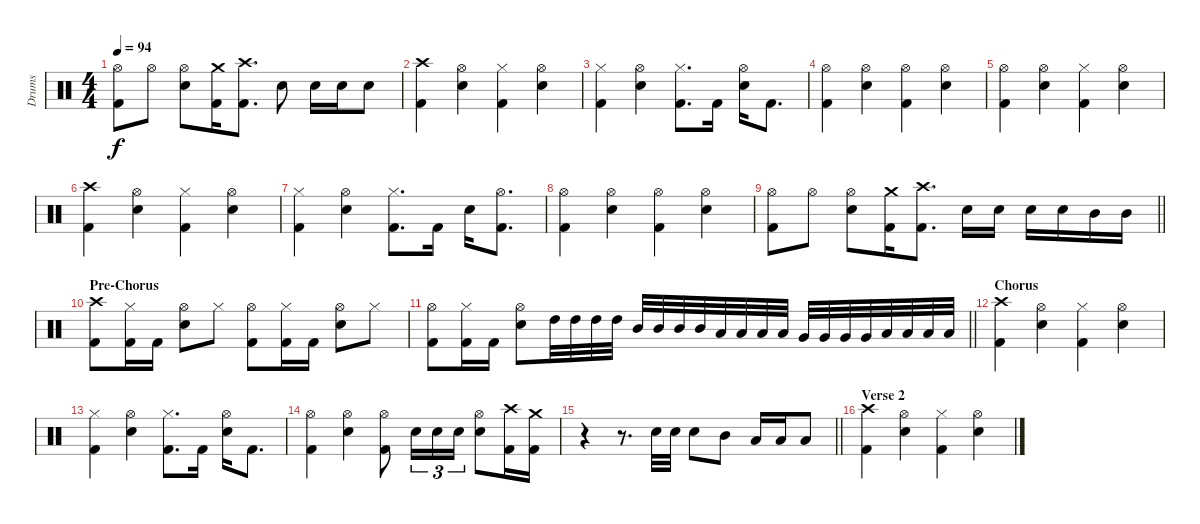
\track ("Drums" "Drums") {instrument percussion}
\staff {score}
\articulation defaults
\ts (4 4)
\tempo 94
\clef neutral
\ks c
("Hi-Hat (open)" "Kick (hit) 2").8{dy f} "Hi-Hat (open)".8 ("Hi-Hat (open)" "Snare (hit) 2").8 ("Crash medium (hit)" "Kick (hit) 2").16 ("Crash high (hit)" "Kick (hit) 2").8{d} "Snare (hit) 2".8 "Snare (hit) 2".16 "Snare (hit) 2".16 "Snare (hit) 2".8 |
("Crash high (hit)" "Kick (hit) 2").4 ("Hi-Hat (open)" "Snare (hit) 2").4 ("Hi-Hat (closed)" "Kick (hit) 2").4 ("Hi-Hat (open)" "Snare (hit) 2").4 |
("Hi-Hat (closed)" "Kick (hit) 2").4 ("Hi-Hat (open)" "Snare (hit) 2").4 ("Hi-Hat (closed)" "Kick (hit) 2").8{d} "Kick (hit) 2".16 ("Hi-Hat (open)" "Snare (hit) 2").16 "Kick (hit) 2".8{d} |
("Hi-Hat (open)" "Kick (hit) 2").4 ("Hi-Hat (open)" "Snare (hit) 2").4 ("Hi-Hat (open)" "Kick (hit) 2").4 ("Hi-Hat (open)" "Snare (hit) 2").4 |
("Hi-Hat (open)" "Kick (hit) 2").4 ("Hi-Hat (open)" "Snare (hit) 2").4 ("Hi-Hat (closed)" "Kick (hit) 2").4 ("Hi-Hat (open)" "Snare (hit) 2").4 |
("Crash high (hit)" "Kick (hit) 2").4 ("Hi-Hat (open)" "Snare (hit) 2").4 ("Hi-Hat (closed)" "Kick (hit) 2").4 ("Hi-Hat (open)" "Snare (hit) 2").4 |
("Hi-Hat (closed)" "Kick (hit) 2").4 ("Hi-Hat (open)" "Snare (hit) 2").4 ("Hi-Hat (closed)" "Kick (hit) 2").8{d} "Kick (hit) 2".16 "Snare (hit) 2".16 ("Hi-Hat (open)" "Kick (hit) 2").8{d} |
("Hi-Hat (open)" "Kick (hit) 2").4 ("Hi-Hat (open)" "Snare (hit) 2").4 ("Hi-Hat (open)" "Kick (hit) 2").4 ("Hi-Hat (open)" "Snare (hit) 2").4 |
\barLineRight lightlight
("Hi-Hat (open)" "Kick (hit) 2").8 "Hi-Hat (open)".8 ("Hi-Hat (open)" "Snare (hit) 2").8 ("Crash medium (hit)" "Kick (hit) 2").16 ("Crash high (hit)" "Kick (hit) 2").8{d} "Snare (hit) 2".16 "Snare (hit) 2".16 "Snare (hit) 2".16 "Snare (hit) 2".16 "Mid Tom (hit)".16 "Mid Tom (hit)".16 |
\section ("" "Pre-Chorus")
("Crash high (hit)" "Kick (hit) 2").8 ("Hi-Hat (closed)" "Kick (hit) 2").16 "Kick (hit) 2".16 ("Hi-Hat (open)" "Snare (hit) 2").8 "Hi-Hat (closed)".8 ("Hi-Hat (open)" "Kick (hit) 2").8 ("Hi-Hat (closed)" "Kick (hit) 2").16 "Kick (hit) 2".16 ("Hi-Hat (open)" "Snare (hit) 2").8 "Hi-Hat (closed)".8 |
\barLineRight lightlight
("Hi-Hat (open)" "Kick (hit) 2").8 ("Hi-Hat (closed)" "Kick (hit) 2").16 "Kick (hit) 2".16 ("Hi-Hat (open)" "Snare (hit) 2").8 "High Tom (hit)".32 "High Tom (hit)".32 "High Tom (hit)".32 "High Tom (hit)".32 "Mid Tom (hit)".32 "Mid Tom (hit)".32 "Mid Tom (hit)".32 "Mid Tom (hit)".32 "Low Tom (hit)".32 "Low Tom (hit)".32 "Low Tom (hit)".32 "Low Tom (hit)".32 "Very Low Tom (hit)".32 "Very Low Tom (hit)".32 "Very Low Tom (hit)".32 "Very Low Tom (hit)".32 "Low Floor Tom (hit)".32 "Low Floor Tom (hit)".32 "Low Floor Tom (hit)".32 "Low Floor Tom (hit)".32 |
\section ("" "Chorus")
("Crash high (hit)" "Kick (hit) 2").4 ("Hi-Hat (open)" "Snare (hit) 2").4 ("Hi-Hat (closed)" "Kick (hit) 2").4 ("Hi-Hat (open)" "Snare (hit) 2").4 |
("Hi-Hat (closed)" "Kick (hit) 2").4 ("Hi-Hat (open)" "Snare (hit) 2").4 ("Hi-Hat (closed)" "Kick (hit) 2").8{d} "Kick (hit) 2".16 ("Hi-Hat (open)" "Snare (hit) 2").16 "Kick (hit) 2".8{d} |
("Hi-Hat (open)" "Kick (hit) 2").4 ("Hi-Hat (open)" "Snare (hit) 2").4 ("Hi-Hat (open)" "Kick (hit) 2").8 "Snare (hit) 2".16{tu (3 2)} "Snare (hit) 2".16{tu (3 2)} "Snare (hit) 2".16{tu (3 2)} ("Hi-Hat (open)" "Snare (hit) 2").8 ("Crash high (hit)" "Kick (hit) 2").16 ("Crash medium (hit)" "Kick (hit) 2").16 |
\barLineRight lightlight
r.4 r.8{d} "Snare (hit) 2".32 "Snare (hit) 2".32 "Snare (hit) 2".8 "Mid Tom (hit)".8 "Low Tom (hit)".16 "Low Tom (hit)".16 "Low Tom (hit)".8 |
\section ("" "Verse 2")
("Crash high (hit)" "Kick (hit) 2").4 ("Hi-Hat (open)" "Snare (hit) 2").4 ("Hi-Hat (closed)" "Kick (hit) 2").4 ("Hi-Hat (open)" "Snare (hit) 2").4
